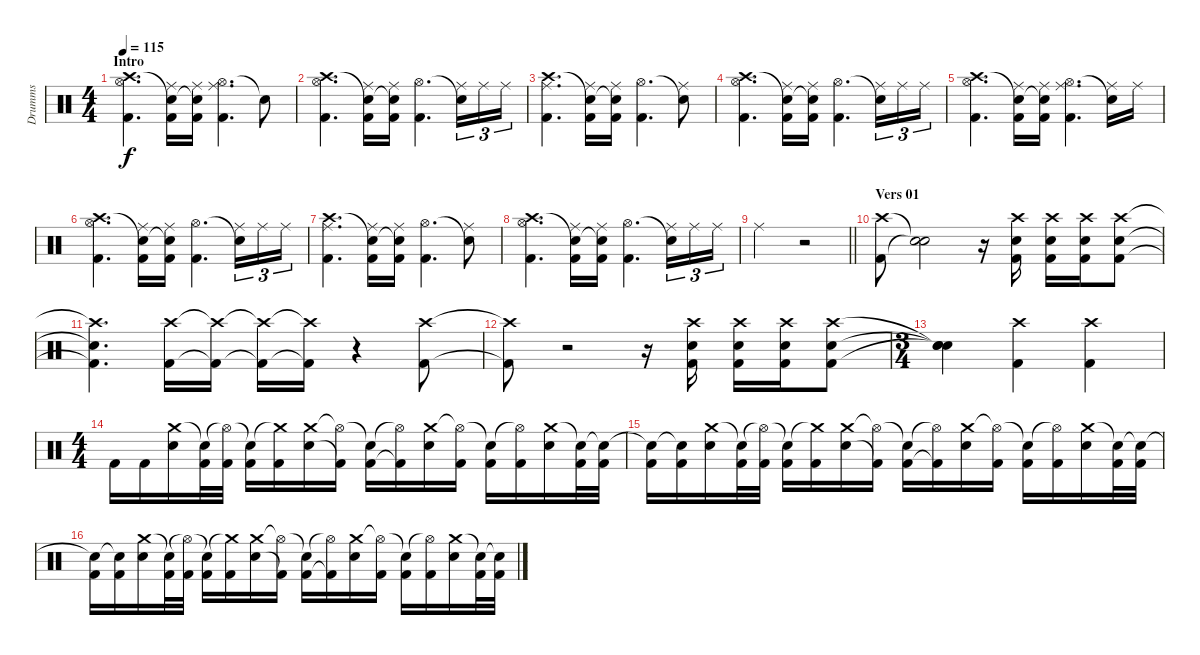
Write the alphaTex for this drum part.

\track ("Drumms" "Drumms") {instrument percussion}
\staff {score}
\articulation defaults
\ts (4 4)
\section ("" "Intro")
\tempo 115
\clef neutral
\ks c
("Crash high (hit)" "Hi-Hat (open)" "Kick (hit) 2").4{d dy f} ("Snare (hit)"{t} "Kick (hit) 2" "Ride (middle)").16 ("Snare (hit)"{t} "Kick (hit) 2" "Ride (middle)").16 ("Hi-Hat (open)" "Kick (hit) 2" "Ride (middle)").4{d} "Snare (hit)"{t}.8 |
("Crash high (hit)" "Hi-Hat (open)" "Kick (hit) 2").4{d} ("Snare (hit)"{t} "Kick (hit) 2" "Ride (middle)").16 ("Snare (hit)"{t} "Kick (hit) 2" "Ride (middle)").16 ("Hi-Hat (open)" "Kick (hit) 2").4{d} ("Snare (hit)"{t} "Ride (middle)").16{tu (3 2)} "Ride (middle)".16{tu (3 2)} "Ride (middle)".16{tu (3 2)} |
("Crash high (hit)" "Ride (middle)" "Kick (hit) 2").4{d} ("Snare (hit)"{t} "Kick (hit) 2" "Ride (middle)").16 ("Snare (hit)"{t} "Kick (hit) 2" "Ride (middle)").16 ("Hi-Hat (open)" "Kick (hit) 2").4{d} ("Snare (hit)"{t} "Ride (middle)").8 |
("Crash high (hit)" "Hi-Hat (open)" "Kick (hit) 2").4{d} ("Snare (hit)"{t} "Kick (hit) 2" "Ride (middle)").16 ("Snare (hit)"{t} "Kick (hit) 2" "Ride (middle)").16 ("Hi-Hat (open)" "Kick (hit) 2").4{d} ("Snare (hit)"{t} "Ride (middle)").16{tu (3 2)} "Ride (middle)".16{tu (3 2)} "Ride (middle)".16{tu (3 2)} |
("Crash high (hit)" "Hi-Hat (open)" "Kick (hit) 2").4{d} ("Snare (hit)"{t} "Kick (hit) 2" "Ride (middle)").16 ("Snare (hit)"{t} "Kick (hit) 2" "Ride (middle)").16 ("Hi-Hat (open)" "Kick (hit) 2" "Ride (middle)").4{d} ("Snare (hit)"{t} "Ride (middle)").16 "Ride (middle)".16 |
("Crash high (hit)" "Hi-Hat (open)" "Kick (hit) 2").4{d} ("Snare (hit)"{t} "Kick (hit) 2" "Ride (middle)").16 ("Snare (hit)"{t} "Kick (hit) 2" "Ride (middle)").16 ("Hi-Hat (open)" "Kick (hit) 2").4{d} ("Snare (hit)"{t} "Ride (middle)").16{tu (3 2)} "Ride (middle)".16{tu (3 2)} "Ride (middle)".16{tu (3 2)} |
("Crash high (hit)" "Ride (middle)" "Kick (hit) 2").4{d} ("Snare (hit)"{t} "Kick (hit) 2" "Ride (middle)").16 ("Snare (hit)"{t} "Kick (hit) 2" "Ride (middle)").16 ("Hi-Hat (open)" "Kick (hit) 2").4{d} ("Snare (hit)"{t} "Ride (middle)").8 |
("Crash high (hit)" "Hi-Hat (open)" "Kick (hit) 2").4{d} ("Snare (hit)"{t} "Kick (hit) 2" "Ride (middle)").16 ("Snare (hit)"{t} "Kick (hit) 2" "Ride (middle)").16 ("Hi-Hat (open)" "Kick (hit) 2").4{d} ("Snare (hit)"{t} "Ride (middle)").16{tu (3 2)} "Ride (middle)".16{tu (3 2)} "Ride (middle)".16{tu (3 2)} |
\barLineRight lightlight "Ride (middle)".2
r.2 |
\section ("" "Vers 01")
("Crash high (hit)" "Kick (hit) 2").8 ("Snare (hit)"{t} "Snare (hit)"{t}).2 r.16 ("Crash high (hit)" "Kick (hit) 2" "Snare (hit) 2").16 ("Crash high (hit)" "Kick (hit) 2" "Snare (hit) 2").16 ("Crash high (hit)" "Kick (hit) 2" "Snare (hit) 2").16 ("Crash high (hit)" "Kick (hit) 2" "Snare (hit) 2").8 |
("Crash high (hit)"{t} "Kick (hit) 2"{t} "Snare (hit)"{t}).4{d} ("Crash high (hit)" "Kick (hit) 2").16 ("Crash high (hit)"{t} "Kick (hit) 2"{t}).16 ("Crash high (hit)"{t} "Kick (hit) 2"{t}).16 ("Crash high (hit)"{t} "Kick (hit) 2"{t}).16 r.4 ("Crash high (hit)" "Kick (hit) 2").8 |
("Crash high (hit)"{t} "Kick (hit) 2"{t}).8 r.2 r.16 ("Crash high (hit)" "Kick (hit) 2" "Snare (hit) 2").16 ("Crash high (hit)" "Kick (hit) 2" "Snare (hit) 2").16 ("Crash high (hit)" "Kick (hit) 2" "Snare (hit) 2").16 ("Crash high (hit)" "Kick (hit) 2" "Snare (hit) 2").8 |
\ts (3 4)
("Snare (hit)"{t} "Snare (hit)"{t} "Snare (hit)"{t}).4 ("Crash high (hit)" "Kick (hit) 2").4 ("Crash high (hit)" "Kick (hit) 2").4 |
\ts (4 4)
"Kick (hit) 2".16 "Kick (hit) 2".16 ("Crash medium (hit)" "Electric Snare (hit)").16 ("Snare (hit)"{t} "Kick (hit) 2").32 ("Hi-Hat (open)"{t} "Kick (hit) 2").32 ("Snare (hit)"{t} "Kick (hit) 2").16 ("Crash medium (hit)"{t} "Kick (hit) 2").16 ("Crash medium (hit)" "Electric Snare (hit)").16 ("Hi-Hat (open)"{t} "Kick (hit) 2"{t}).16 ("Snare (hit)"{t} "Kick (hit) 2").16 ("Hi-Hat (open)"{t} "Kick (hit) 2"{t}).16 ("Crash medium (hit)" "Electric Snare (hit)").16 ("Hi-Hat (open)"{t} "Kick (hit) 2").16 ("Snare (hit)"{t} "Kick (hit) 2").16 ("Hi-Hat (open)"{t} "Kick (hit) 2").16 ("Crash medium (hit)" "Electric Snare (hit)").16 ("Snare (hit)"{t} "Kick (hit) 2").32 ("Snare (hit)"{t} "Kick (hit) 2").32 |
("Snare (hit)"{t} "Kick (hit) 2").16 ("Snare (hit)"{t} "Kick (hit) 2").16 ("Crash medium (hit)" "Electric Snare (hit)").16 ("Snare (hit)"{t} "Kick (hit) 2").32 ("Hi-Hat (open)"{t} "Kick (hit) 2").32 ("Snare (hit)"{t} "Kick (hit) 2").16 ("Crash medium (hit)"{t} "Kick (hit) 2").16 ("Crash medium (hit)" "Electric Snare (hit)").16 ("Hi-Hat (open)"{t} "Kick (hit) 2"{t}).16 ("Snare (hit)"{t} "Kick (hit) 2").16 ("Hi-Hat (open)"{t} "Kick (hit) 2"{t}).16 ("Crash medium (hit)" "Electric Snare (hit)").16 ("Hi-Hat (open)"{t} "Kick (hit) 2").16 ("Snare (hit)"{t} "Kick (hit) 2").16 ("Hi-Hat (open)"{t} "Kick (hit) 2").16 ("Crash medium (hit)" "Electric Snare (hit)").16 ("Snare (hit)"{t} "Kick (hit) 2").32 ("Snare (hit)"{t} "Kick (hit) 2").32 |
("Snare (hit)"{t} "Kick (hit) 2").16 ("Snare (hit)"{t} "Kick (hit) 2").16 ("Crash medium (hit)" "Electric Snare (hit)").16 ("Snare (hit)"{t} "Kick (hit) 2").32 ("Hi-Hat (open)"{t} "Kick (hit) 2").32 ("Snare (hit)"{t} "Kick (hit) 2").16 ("Crash medium (hit)"{t} "Kick (hit) 2").16 ("Crash medium (hit)" "Electric Snare (hit)").16 ("Hi-Hat (open)"{t} "Kick (hit) 2"{t}).16 ("Snare (hit)"{t} "Kick (hit) 2").16 ("Hi-Hat (open)"{t} "Kick (hit) 2"{t}).16 ("Crash medium (hit)" "Electric Snare (hit)").16 ("Hi-Hat (open)"{t} "Kick (hit) 2").16 ("Snare (hit)"{t} "Kick (hit) 2").16 ("Hi-Hat (open)"{t} "Kick (hit) 2").16 ("Crash medium (hit)" "Electric Snare (hit)").16 ("Snare (hit)"{t} "Kick (hit) 2").32 ("Snare (hit)"{t} "Kick (hit) 2").32
